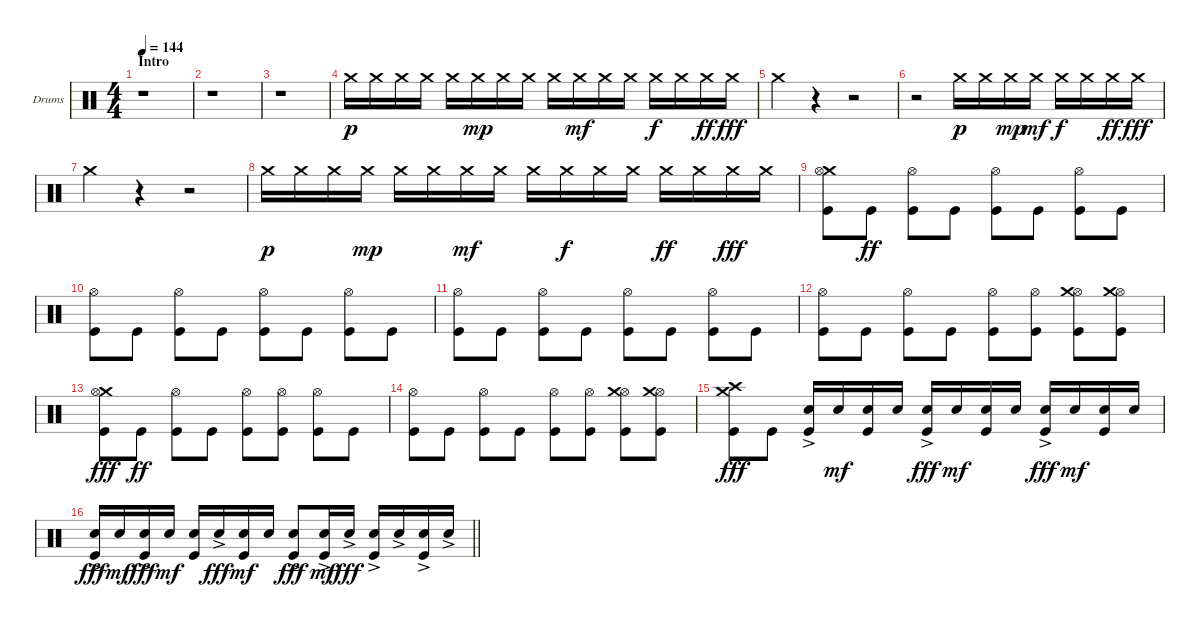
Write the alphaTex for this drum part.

\bracketExtendMode groupsimilarinstruments
\firstSystemTrackNameOrientation horizontal
\otherSystemsTrackNameOrientation horizontal
\track ("Drumkit" "Drums") {instrument percussion}
\staff {score}
\articulation defaults
\ts (4 4)
\beaming (8 2 2 2 2)
\section ("" "Intro")
\tempo 144
\clef neutral
\ks c
r.1{dy p} |
r.1 |
r.1 |
"Crash medium (hit)".16 "Crash medium (hit)".16 "Crash medium (hit)".16 "Crash medium (hit)".16 "Crash medium (hit)".16 "Crash medium (hit)".16{dy mp} "Crash medium (hit)".16 "Crash medium (hit)".16 "Crash medium (hit)".16 "Crash medium (hit)".16{dy mf} "Crash medium (hit)".16 "Crash medium (hit)".16 "Crash medium (hit)".16{dy f} "Crash medium (hit)".16 "Crash medium (hit)".16{dy ff} "Crash medium (hit)".16{dy fff} |
"Crash medium (hit)".4 r.4 r.2 |
r.2 "Crash medium (hit)".16{dy p} "Crash medium (hit)".16 "Crash medium (hit)".16{dy mp} "Crash medium (hit)".16{dy mf} "Crash medium (hit)".16{dy f} "Crash medium (hit)".16 "Crash medium (hit)".16{dy ff} "Crash medium (hit)".16{dy fff} |
"Crash medium (hit)".4 r.4 r.2 |
"Crash medium (hit)".16{dy p} "Crash medium (hit)".16 "Crash medium (hit)".16 "Crash medium (hit)".16{dy mp} "Crash medium (hit)".16 "Crash medium (hit)".16 "Crash medium (hit)".16{dy mf} "Crash medium (hit)".16 "Crash medium (hit)".16 "Crash medium (hit)".16{dy f} "Crash medium (hit)".16 "Crash medium (hit)".16 "Crash medium (hit)".16{dy ff} "Crash medium (hit)".16 "Crash medium (hit)".16{dy fff} "Crash medium (hit)".16 |
("Crash medium (hit)" "Kick (hit)" "Hi-Hat (open)").8 "Kick (hit)".8{dy ff} ("Kick (hit)" "Hi-Hat (open)").8 "Kick (hit)".8 ("Kick (hit)" "Hi-Hat (open)").8 "Kick (hit)".8 ("Kick (hit)" "Hi-Hat (open)").8 "Kick (hit)".8 |
("Kick (hit)" "Hi-Hat (open)").8 "Kick (hit)".8 ("Kick (hit)" "Hi-Hat (open)").8 "Kick (hit)".8 ("Kick (hit)" "Hi-Hat (open)").8 "Kick (hit)".8 ("Kick (hit)" "Hi-Hat (open)").8 "Kick (hit)".8 |
("Kick (hit)" "Hi-Hat (open)").8 "Kick (hit)".8 ("Kick (hit)" "Hi-Hat (open)").8 "Kick (hit)".8 ("Kick (hit)" "Hi-Hat (open)").8 "Kick (hit)".8 ("Kick (hit)" "Hi-Hat (open)").8 "Kick (hit)".8 |
("Kick (hit)" "Hi-Hat (open)").8 "Kick (hit)".8 ("Kick (hit)" "Hi-Hat (open)").8 "Kick (hit)".8 ("Kick (hit)" "Hi-Hat (open)").8 ("Kick (hit)" "Hi-Hat (open)").8 ("Kick (hit)" "Hi-Hat (open)" "Crash medium (hit)").8 ("Kick (hit)" "Hi-Hat (open)" "Crash medium (hit)").8 |
("Crash medium (hit)" "Kick (hit)" "Hi-Hat (open)").8{dy fff} "Kick (hit)".8{dy ff} ("Kick (hit)" "Hi-Hat (open)").8 "Kick (hit)".8 ("Kick (hit)" "Hi-Hat (open)").8 ("Kick (hit)" "Hi-Hat (open)").8 ("Kick (hit)" "Hi-Hat (open)").8 "Kick (hit)".8 |
("Kick (hit)" "Hi-Hat (open)").8 "Kick (hit)".8 ("Kick (hit)" "Hi-Hat (open)").8 "Kick (hit)".8 ("Kick (hit)" "Hi-Hat (open)").8 ("Kick (hit)" "Hi-Hat (open)").8 ("Kick (hit)" "Hi-Hat (open)" "Crash medium (hit)").8 ("Kick (hit)" "Hi-Hat (open)" "Crash medium (hit)").8 |
("Crash high (hit)" "Crash medium (hit)" "Kick (hit)").8{dy fff} "Kick (hit)".8 ("Snare (hit) 2"{ac} "Kick (hit)").16 "Snare (hit) 2".16{dy mf} ("Snare (hit) 2" "Kick (hit)").16 "Snare (hit) 2".16 ("Snare (hit) 2"{ac} "Kick (hit)").16{dy fff} "Snare (hit) 2".16{dy mf} ("Snare (hit) 2" "Kick (hit)").16 "Snare (hit) 2".16 ("Snare (hit) 2"{ac} "Kick (hit)").16{dy fff} "Snare (hit) 2".16{dy mf} ("Snare (hit) 2" "Kick (hit)").16 "Snare (hit) 2".16 |
\barLineRight lightlight
("Snare (hit) 2"{ac} "Kick (hit)").16{dy fff} "Snare (hit) 2".16{dy mf} ("Snare (hit) 2"{ac} "Kick (hit)").16{dy fff} "Snare (hit) 2".16{dy mf} ("Snare (hit) 2" "Kick (hit)").16 "Snare (hit) 2"{ac}.16{dy fff} ("Snare (hit) 2" "Kick (hit)").16{dy mf} "Snare (hit) 2".16 ("Snare (hit) 2"{ac} "Kick (hit)").8{dy fff} ("Snare (hit) 2"{ac} "Kick (hit)"{ac}).16{dy mf} "Snare (hit) 2"{ac}.16{dy fff} ("Snare (hit) 2"{ac} "Kick (hit)"{ac}).16 "Snare (hit) 2"{ac}.16 ("Snare (hit) 2"{ac} "Kick (hit)"{ac}).16 "Snare (hit) 2"{ac}.16
